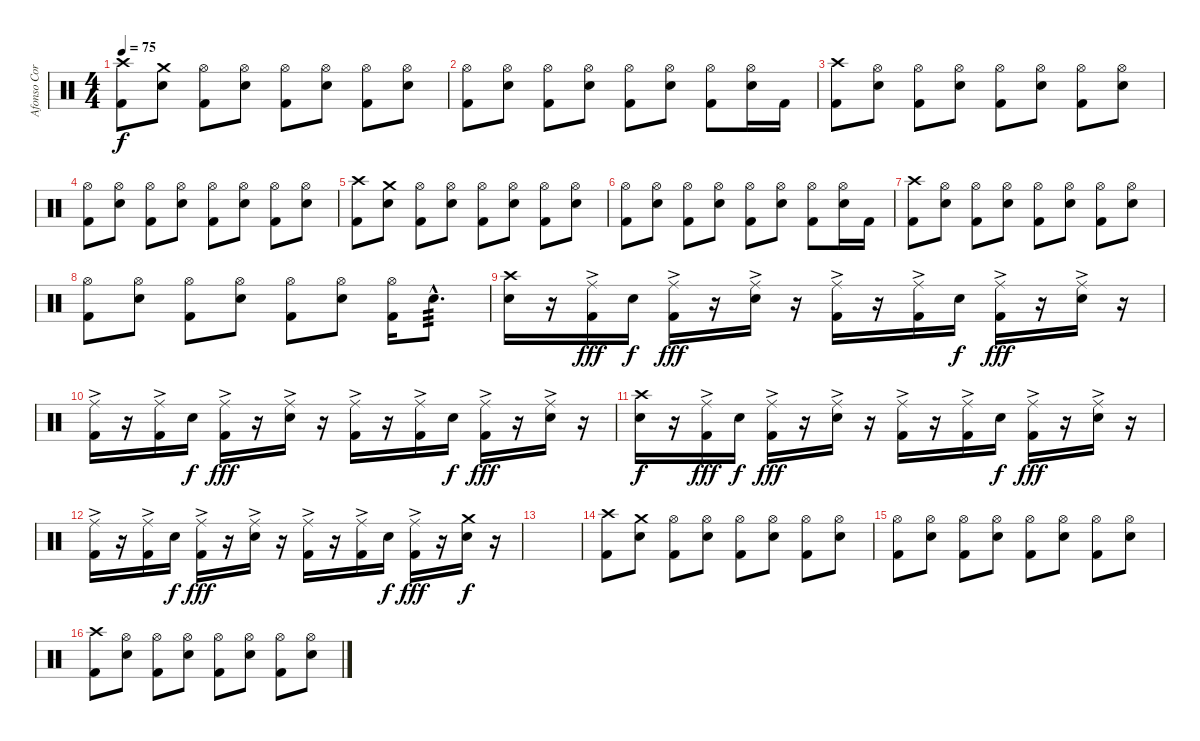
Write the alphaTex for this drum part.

\track ("Afonso Corte-Real" "Afonso Cor") {instrument percussion}
\staff {score}
\articulation defaults
\ts (4 4)
\tempo 75
\clef neutral
\ks c
("Crash high (hit)" "Kick (hit) 2").8{dy f} ("Crash medium (hit)" "Electric Snare (hit)").8 ("Hi-Hat (open)" "Kick (hit) 2").8 ("Hi-Hat (open)" "Electric Snare (hit)").8 ("Hi-Hat (open)" "Kick (hit) 2").8 ("Hi-Hat (open)" "Electric Snare (hit)").8 ("Hi-Hat (open)" "Kick (hit) 2").8 ("Hi-Hat (open)" "Electric Snare (hit)").8 |
("Hi-Hat (open)" "Kick (hit) 2").8 ("Hi-Hat (open)" "Electric Snare (hit)").8 ("Hi-Hat (open)" "Kick (hit) 2").8 ("Hi-Hat (open)" "Electric Snare (hit)").8 ("Hi-Hat (open)" "Kick (hit) 2").8 ("Hi-Hat (open)" "Electric Snare (hit)").8 ("Hi-Hat (open)" "Kick (hit) 2").8 ("Hi-Hat (open)" "Electric Snare (hit)").16 "Kick (hit) 2".16 |
("Crash high (hit)" "Kick (hit) 2").8 ("Hi-Hat (open)" "Electric Snare (hit)").8 ("Hi-Hat (open)" "Kick (hit) 2").8 ("Hi-Hat (open)" "Electric Snare (hit)").8 ("Hi-Hat (open)" "Kick (hit) 2").8 ("Hi-Hat (open)" "Electric Snare (hit)").8 ("Hi-Hat (open)" "Kick (hit) 2").8 ("Hi-Hat (open)" "Electric Snare (hit)").8 |
("Hi-Hat (open)" "Kick (hit) 2").8 ("Hi-Hat (open)" "Electric Snare (hit)").8 ("Hi-Hat (open)" "Kick (hit) 2").8 ("Hi-Hat (open)" "Electric Snare (hit)").8 ("Hi-Hat (open)" "Kick (hit) 2").8 ("Hi-Hat (open)" "Electric Snare (hit)").8 ("Hi-Hat (open)" "Kick (hit) 2").8 ("Hi-Hat (open)" "Electric Snare (hit)").8 |
("Crash high (hit)" "Kick (hit) 2").8 ("Crash medium (hit)" "Electric Snare (hit)").8 ("Hi-Hat (open)" "Kick (hit) 2").8 ("Hi-Hat (open)" "Electric Snare (hit)").8 ("Hi-Hat (open)" "Kick (hit) 2").8 ("Hi-Hat (open)" "Electric Snare (hit)").8 ("Hi-Hat (open)" "Kick (hit) 2").8 ("Hi-Hat (open)" "Electric Snare (hit)").8 |
("Hi-Hat (open)" "Kick (hit) 2").8 ("Hi-Hat (open)" "Electric Snare (hit)").8 ("Hi-Hat (open)" "Kick (hit) 2").8 ("Hi-Hat (open)" "Electric Snare (hit)").8 ("Hi-Hat (open)" "Kick (hit) 2").8 ("Hi-Hat (open)" "Electric Snare (hit)").8 ("Hi-Hat (open)" "Kick (hit) 2").8 ("Hi-Hat (open)" "Electric Snare (hit)").16 "Kick (hit) 2".16 |
("Crash high (hit)" "Kick (hit) 2").8 ("Hi-Hat (open)" "Electric Snare (hit)").8 ("Hi-Hat (open)" "Kick (hit) 2").8 ("Hi-Hat (open)" "Electric Snare (hit)").8 ("Hi-Hat (open)" "Kick (hit) 2").8 ("Hi-Hat (open)" "Electric Snare (hit)").8 ("Hi-Hat (open)" "Kick (hit) 2").8 ("Hi-Hat (open)" "Electric Snare (hit)").8 |
("Hi-Hat (open)" "Kick (hit) 2").8 ("Hi-Hat (open)" "Electric Snare (hit)").8 ("Hi-Hat (open)" "Kick (hit) 2").8 ("Hi-Hat (open)" "Electric Snare (hit)").8 ("Hi-Hat (open)" "Kick (hit) 2").8 ("Hi-Hat (open)" "Electric Snare (hit)").8 ("Hi-Hat (open)" "Kick (hit) 2").16 "Electric Snare (hit)"{hac}.8{d tp 3} |
("Crash high (hit)" "Electric Snare (hit)").16 r.16 ("Ride (middle)"{ac} "Kick (hit) 2").16{dy fff} "Electric Snare (hit)".16{dy f} ("Ride (middle)"{ac} "Kick (hit) 2").16{dy fff} r.16 ("Ride (middle)"{ac} "Electric Snare (hit)").16 r.16 ("Ride (middle)"{ac} "Kick (hit) 2").16 r.16 ("Ride (middle)"{ac} "Kick (hit) 2").16 "Electric Snare (hit)".16{dy f} ("Ride (middle)"{ac} "Kick (hit) 2").16{dy fff} r.16 ("Ride (middle)"{ac} "Electric Snare (hit)").16 r.16 |
("Ride (middle)"{ac} "Kick (hit) 2").16 r.16 ("Ride (middle)"{ac} "Kick (hit) 2").16 "Electric Snare (hit)".16{dy f} ("Ride (middle)"{ac} "Kick (hit) 2").16{dy fff} r.16 ("Ride (middle)"{ac} "Electric Snare (hit)").16 r.16 ("Ride (middle)"{ac} "Kick (hit) 2").16 r.16 ("Ride (middle)"{ac} "Kick (hit) 2").16 "Electric Snare (hit)".16{dy f} ("Ride (middle)"{ac} "Kick (hit) 2").16{dy fff} r.16 ("Ride (middle)"{ac} "Electric Snare (hit)").16 r.16 |
("Crash high (hit)" "Electric Snare (hit)").16{dy f} r.16 ("Ride (middle)"{ac} "Kick (hit) 2").16{dy fff} "Electric Snare (hit)".16{dy f} ("Ride (middle)"{ac} "Kick (hit) 2").16{dy fff} r.16 ("Ride (middle)"{ac} "Electric Snare (hit)").16 r.16 ("Ride (middle)"{ac} "Kick (hit) 2").16 r.16 ("Ride (middle)"{ac} "Kick (hit) 2").16 "Electric Snare (hit)".16{dy f} ("Ride (middle)"{ac} "Kick (hit) 2").16{dy fff} r.16 ("Ride (middle)"{ac} "Electric Snare (hit)").16 r.16 |
("Ride (middle)"{ac} "Kick (hit) 2").16 r.16 ("Ride (middle)"{ac} "Kick (hit) 2").16 "Electric Snare (hit)".16{dy f} ("Ride (middle)"{ac} "Kick (hit) 2").16{dy fff} r.16 ("Ride (middle)"{ac} "Electric Snare (hit)").16 r.16 ("Ride (middle)"{ac} "Kick (hit) 2").16 r.16 ("Ride (middle)"{ac} "Kick (hit) 2").16 "Electric Snare (hit)".16{dy f} ("Ride (middle)"{ac} "Kick (hit) 2").16{dy fff} r.16 ("Crash medium (hit)" "Electric Snare (hit)").16{dy f} r.16 |
|
("Crash high (hit)" "Kick (hit) 2").8 ("Crash medium (hit)" "Electric Snare (hit)").8 ("Hi-Hat (open)" "Kick (hit) 2").8 ("Hi-Hat (open)" "Electric Snare (hit)").8 ("Hi-Hat (open)" "Kick (hit) 2").8 ("Hi-Hat (open)" "Electric Snare (hit)").8 ("Hi-Hat (open)" "Kick (hit) 2").8 ("Hi-Hat (open)" "Electric Snare (hit)").8 |
("Hi-Hat (open)" "Kick (hit) 2").8 ("Hi-Hat (open)" "Electric Snare (hit)").8 ("Hi-Hat (open)" "Kick (hit) 2").8 ("Hi-Hat (open)" "Electric Snare (hit)").8 ("Hi-Hat (open)" "Kick (hit) 2").8 ("Hi-Hat (open)" "Electric Snare (hit)").8 ("Hi-Hat (open)" "Kick (hit) 2").8 ("Hi-Hat (open)" "Electric Snare (hit)").8 |
("Crash high (hit)" "Kick (hit) 2").8 ("Hi-Hat (open)" "Electric Snare (hit)").8 ("Hi-Hat (open)" "Kick (hit) 2").8 ("Hi-Hat (open)" "Electric Snare (hit)").8 ("Hi-Hat (open)" "Kick (hit) 2").8 ("Hi-Hat (open)" "Electric Snare (hit)").8 ("Hi-Hat (open)" "Kick (hit) 2").8 ("Hi-Hat (open)" "Electric Snare (hit)").8
